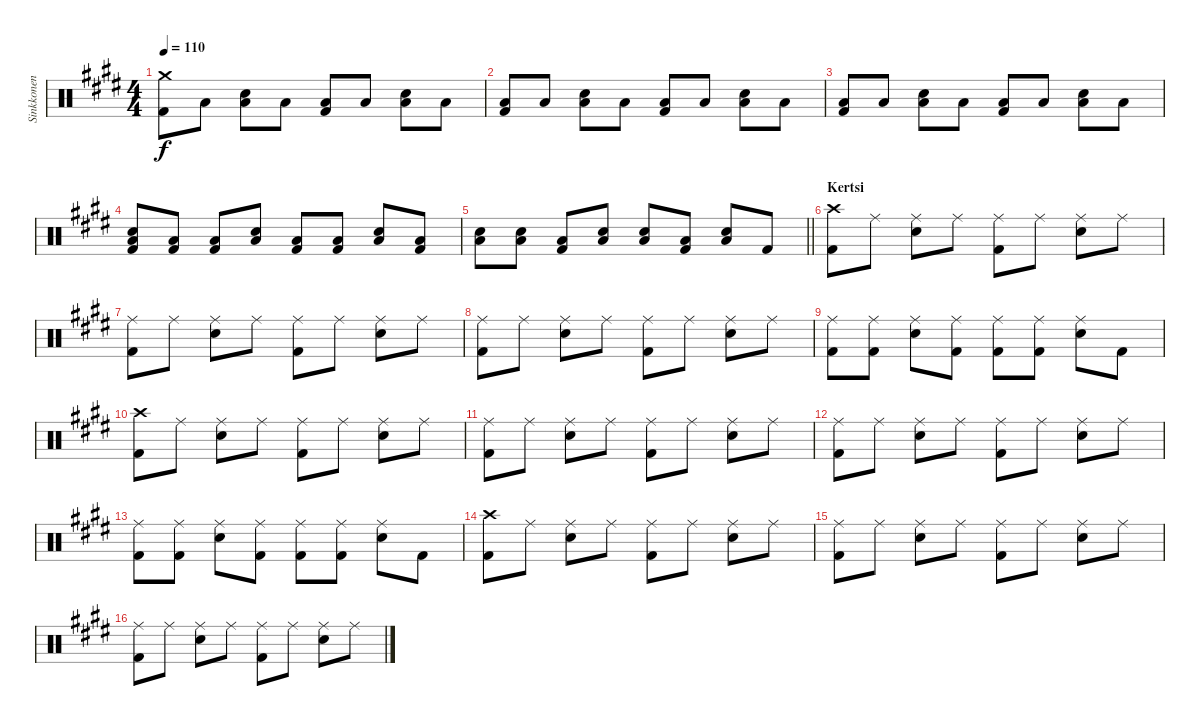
\track ("Sinkkonen" "Sinkkonen") {instrument percussion}
\staff {score}
\articulation defaults
\ts (4 4)
\tempo 110
\clef neutral
\ks c#minor
("Crash medium (hit)" "Kick (hit) 2").8{dy f} "Low Floor Tom (hit)".8 ("Low Floor Tom (hit)" "Snare (hit) 2").8 "Low Floor Tom (hit)".8 ("Low Floor Tom (hit)" "Kick (hit) 2").8 "Low Floor Tom (hit)".8 ("Low Floor Tom (hit)" "Snare (hit) 2").8 "Low Floor Tom (hit)".8 |
("Low Floor Tom (hit)" "Kick (hit) 2").8 "Low Floor Tom (hit)".8 ("Low Floor Tom (hit)" "Snare (hit) 2").8 "Low Floor Tom (hit)".8 ("Low Floor Tom (hit)" "Kick (hit) 2").8 "Low Floor Tom (hit)".8 ("Low Floor Tom (hit)" "Snare (hit) 2").8 "Low Floor Tom (hit)".8 |
("Low Floor Tom (hit)" "Kick (hit) 2").8 "Low Floor Tom (hit)".8 ("Low Floor Tom (hit)" "Snare (hit) 2").8 "Low Floor Tom (hit)".8 ("Low Floor Tom (hit)" "Kick (hit) 2").8 "Low Floor Tom (hit)".8 ("Low Floor Tom (hit)" "Snare (hit) 2").8 "Low Floor Tom (hit)".8 |
("Low Floor Tom (hit)" "Snare (hit) 2" "Kick (hit) 2").8 ("Low Floor Tom (hit)" "Kick (hit) 2").8 ("Low Floor Tom (hit)" "Kick (hit) 2").8 ("Low Floor Tom (hit)" "Snare (hit) 2").8 ("Low Floor Tom (hit)" "Kick (hit) 2").8 ("Low Floor Tom (hit)" "Kick (hit) 2").8 ("Low Floor Tom (hit)" "Snare (hit) 2").8 ("Low Floor Tom (hit)" "Kick (hit) 2").8 |
\barLineRight lightlight
("Low Floor Tom (hit)" "Snare (hit) 2").8 ("Low Floor Tom (hit)" "Snare (hit) 2").8 ("Low Floor Tom (hit)" "Kick (hit) 2").8 ("Low Floor Tom (hit)" "Snare (hit) 2").8 ("Low Floor Tom (hit)" "Snare (hit) 2").8 ("Low Floor Tom (hit)" "Kick (hit) 2").8 ("Low Floor Tom (hit)" "Snare (hit) 2").8 "Kick (hit) 2".8 |
\section ("" "Kertsi")
("Crash high (hit)" "Kick (hit) 2").8 "Ride (middle)".8 ("Ride (middle)" "Snare (hit) 2").8 "Ride (middle)".8 ("Ride (middle)" "Kick (hit) 2").8 "Ride (middle)".8 ("Ride (middle)" "Snare (hit) 2").8 "Ride (middle)".8 |
("Ride (middle)" "Kick (hit) 2").8 "Ride (middle)".8 ("Ride (middle)" "Snare (hit) 2").8 "Ride (middle)".8 ("Ride (middle)" "Kick (hit) 2").8 "Ride (middle)".8 ("Ride (middle)" "Snare (hit) 2").8 "Ride (middle)".8 |
("Ride (middle)" "Kick (hit) 2").8 "Ride (middle)".8 ("Ride (middle)" "Snare (hit) 2").8 "Ride (middle)".8 ("Ride (middle)" "Kick (hit) 2").8 "Ride (middle)".8 ("Ride (middle)" "Snare (hit) 2").8 "Ride (middle)".8 |
("Ride (middle)" "Kick (hit) 2").8 ("Ride (middle)" "Kick (hit) 2").8 ("Ride (middle)" "Snare (hit) 2").8 ("Ride (middle)" "Kick (hit) 2").8 ("Ride (middle)" "Kick (hit) 2").8 ("Ride (middle)" "Kick (hit) 2").8 ("Ride (middle)" "Snare (hit) 2").8 "Kick (hit) 2".8 |
("Crash high (hit)" "Kick (hit) 2").8 "Ride (middle)".8 ("Ride (middle)" "Snare (hit) 2").8 "Ride (middle)".8 ("Ride (middle)" "Kick (hit) 2").8 "Ride (middle)".8 ("Ride (middle)" "Snare (hit) 2").8 "Ride (middle)".8 |
("Ride (middle)" "Kick (hit) 2").8 "Ride (middle)".8 ("Ride (middle)" "Snare (hit) 2").8 "Ride (middle)".8 ("Ride (middle)" "Kick (hit) 2").8 "Ride (middle)".8 ("Ride (middle)" "Snare (hit) 2").8 "Ride (middle)".8 |
("Ride (middle)" "Kick (hit) 2").8 "Ride (middle)".8 ("Ride (middle)" "Snare (hit) 2").8 "Ride (middle)".8 ("Ride (middle)" "Kick (hit) 2").8 "Ride (middle)".8 ("Ride (middle)" "Snare (hit) 2").8 "Ride (middle)".8 |
("Ride (middle)" "Kick (hit) 2").8 ("Ride (middle)" "Kick (hit) 2").8 ("Ride (middle)" "Snare (hit) 2").8 ("Ride (middle)" "Kick (hit) 2").8 ("Ride (middle)" "Kick (hit) 2").8 ("Ride (middle)" "Kick (hit) 2").8 ("Ride (middle)" "Snare (hit) 2").8 "Kick (hit) 2".8 |
("Crash high (hit)" "Kick (hit) 2").8 "Ride (middle)".8 ("Ride (middle)" "Snare (hit) 2").8 "Ride (middle)".8 ("Ride (middle)" "Kick (hit) 2").8 "Ride (middle)".8 ("Ride (middle)" "Snare (hit) 2").8 "Ride (middle)".8 |
("Ride (middle)" "Kick (hit) 2").8 "Ride (middle)".8 ("Ride (middle)" "Snare (hit) 2").8 "Ride (middle)".8 ("Ride (middle)" "Kick (hit) 2").8 "Ride (middle)".8 ("Ride (middle)" "Snare (hit) 2").8 "Ride (middle)".8 |
("Ride (middle)" "Kick (hit) 2").8 "Ride (middle)".8 ("Ride (middle)" "Snare (hit) 2").8 "Ride (middle)".8 ("Ride (middle)" "Kick (hit) 2").8 "Ride (middle)".8 ("Ride (middle)" "Snare (hit) 2").8 "Ride (middle)".8
